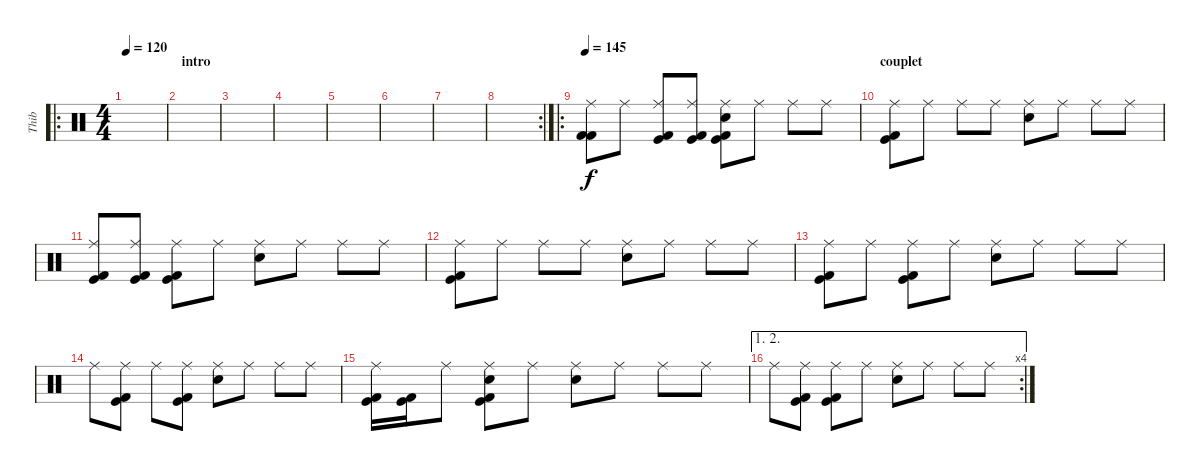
\track ("Thib" "Thib") {instrument percussion}
\staff {score}
\articulation defaults
\ro
\ts (4 4)
\tempo 120
\clef neutral
\ks c
|
\section ("" "intro")
|
|
|
|
|
|
\rc 2
|
\ro
\tempo 145
("Kick (hit) 2" "Kick (hit) 2" "Ride (middle)").8 "Ride (middle)".8 ("Kick (hit) 2" "Kick (hit)" "Ride (middle)").8 ("Kick (hit)" "Kick (hit) 2" "Ride (middle)").8 ("Electric Snare (hit)" "Kick (hit) 2" "Kick (hit)" "Ride (middle)").8 "Ride (middle)".8 "Ride (middle)".8 "Ride (middle)".8 |
\section ("" "couplet")
("Kick (hit)" "Kick (hit) 2" "Ride (middle)").8 "Ride (middle)".8 "Ride (middle)".8 "Ride (middle)".8 ("Electric Snare (hit)" "Ride (middle)").8 "Ride (middle)".8 "Ride (middle)".8 "Ride (middle)".8 |
("Kick (hit)" "Kick (hit) 2" "Ride (middle)").8 ("Kick (hit) 2" "Kick (hit)" "Ride (middle)").8 ("Kick (hit)" "Kick (hit) 2" "Ride (middle)").8 "Ride (middle)".8 ("Electric Snare (hit)" "Ride (middle)").8 "Ride (middle)".8 "Ride (middle)".8 "Ride (middle)".8 |
("Kick (hit)" "Kick (hit) 2" "Ride (middle)").8 "Ride (middle)".8 "Ride (middle)".8 "Ride (middle)".8 ("Electric Snare (hit)" "Ride (middle)").8 "Ride (middle)".8 "Ride (middle)".8 "Ride (middle)".8 |
("Kick (hit) 2" "Kick (hit)" "Ride (middle)").8 "Ride (middle)".8 ("Kick (hit)" "Kick (hit) 2" "Ride (middle)").8 "Ride (middle)".8 ("Electric Snare (hit)" "Ride (middle)").8 "Ride (middle)".8 "Ride (middle)".8 "Ride (middle)".8 |
\section ("" "")
"Ride (middle)".8 ("Kick (hit)" "Kick (hit) 2" "Ride (middle)").8 "Ride (middle)".8 ("Kick (hit) 2" "Kick (hit)" "Ride (middle)").8 ("Electric Snare (hit)" "Ride (middle)").8 "Ride (middle)".8 "Ride (middle)".8 "Ride (middle)".8 |
("Kick (hit) 2" "Kick (hit)" "Ride (middle)").16 ("Kick (hit)" "Kick (hit) 2").16 "Ride (middle)".8 ("Metronome (bell)" "Kick (hit) 2" "Kick (hit)" "Ride (middle)").8 "Ride (middle)".8 ("Electric Snare (hit)" "Ride (middle)").8 "Ride (middle)".8 "Ride (middle)".8 "Ride (middle)".8 |
\ae (1 2)
\rc 4 "Ride (middle)".8
("Kick (hit) 2" "Kick (hit)" "Ride (middle)").8 ("Kick (hit) 2" "Kick (hit)" "Ride (middle)").8 "Ride (middle)".8 ("Electric Snare (hit)" "Ride (middle)").8 "Ride (middle)".8 "Ride (middle)".8 "Ride (middle)".8
